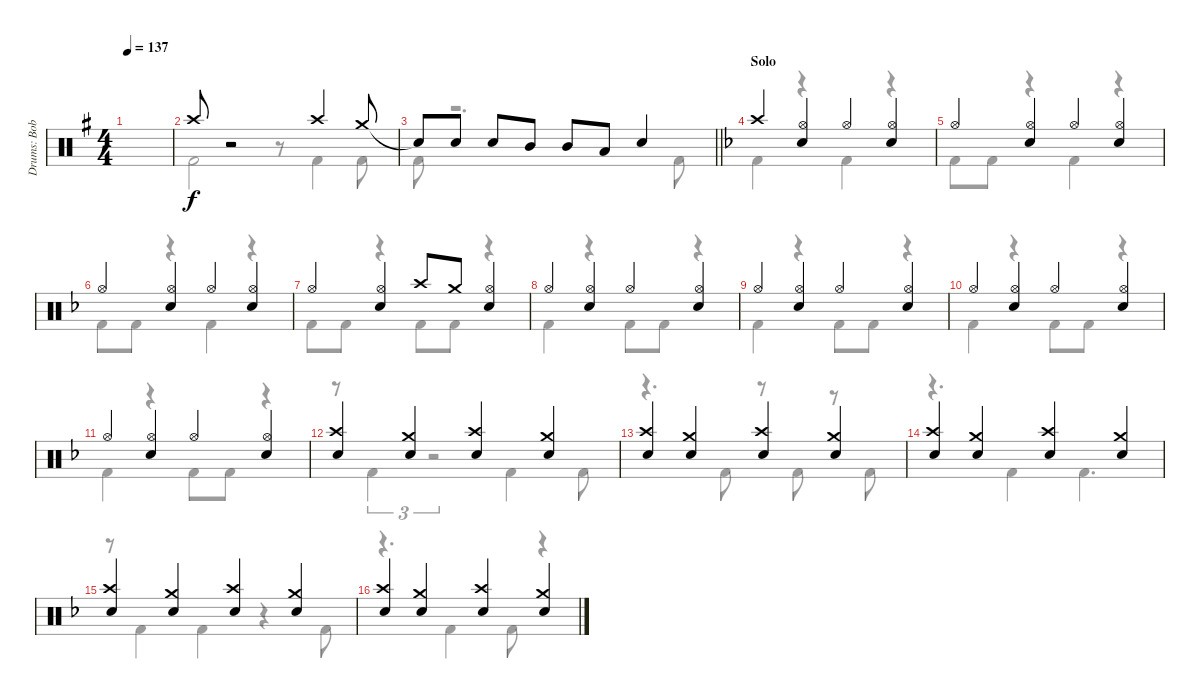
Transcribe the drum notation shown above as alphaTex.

\track ("Drums: Bobby" "Drums: Bob") {instrument percussion}
\staff {score}
\articulation defaults
\voice
\ts (4 4)
\tempo 137
\clef neutral
\ks g
|
"Crash high (hit)".8 r.2 "Crash high (hit)".4 "Crash medium (hit)".8 |
\barLineRight lightlight "Snare (hit)"{t}.8 "Snare (hit) 2".8 "Snare (hit) 2".8 "Mid Tom (hit)".8 "Mid Tom (hit)".8 "Low Tom (hit)".8 "Snare (hit) 2".4
|
\section ("" "Solo")
\ks f "Crash high (hit)".4
("Hi-Hat (open)" "Snare (hit) 2").4 "Hi-Hat (open)".4 ("Hi-Hat (open)" "Snare (hit) 2").4 |
"Hi-Hat (open)".4 ("Hi-Hat (open)" "Snare (hit) 2").4 "Hi-Hat (open)".4 ("Hi-Hat (open)" "Snare (hit) 2").4 |
"Hi-Hat (open)".4 ("Hi-Hat (open)" "Snare (hit) 2").4 "Hi-Hat (open)".4 ("Hi-Hat (open)" "Snare (hit) 2").4 |
"Hi-Hat (open)".4 ("Hi-Hat (open)" "Snare (hit) 2").4 "Crash high (hit)".8 "Crash medium (hit)".8 ("Hi-Hat (open)" "Snare (hit) 2").4 |
"Hi-Hat (open)".4 ("Hi-Hat (open)" "Snare (hit) 2").4 "Hi-Hat (open)".4 ("Hi-Hat (open)" "Snare (hit) 2").4 |
"Hi-Hat (open)".4 ("Hi-Hat (open)" "Snare (hit) 2").4 "Hi-Hat (open)".4 ("Hi-Hat (open)" "Snare (hit) 2").4 |
"Hi-Hat (open)".4 ("Hi-Hat (open)" "Snare (hit) 2").4 "Hi-Hat (open)".4 ("Hi-Hat (open)" "Snare (hit) 2").4 |
"Hi-Hat (open)".4 ("Hi-Hat (open)" "Snare (hit) 2").4 "Hi-Hat (open)".4 ("Hi-Hat (open)" "Snare (hit) 2").4 |
("Crash high (hit)" "Snare (hit) 2").4 ("Crash medium (hit)" "Snare (hit) 2").4 ("Crash high (hit)" "Snare (hit) 2").4 ("Crash medium (hit)" "Snare (hit) 2").4 |
("Crash high (hit)" "Snare (hit) 2").4 ("Crash medium (hit)" "Snare (hit) 2").4 ("Crash high (hit)" "Snare (hit) 2").4 ("Crash medium (hit)" "Snare (hit) 2").4 |
("Crash high (hit)" "Snare (hit) 2").4 ("Crash medium (hit)" "Snare (hit) 2").4 ("Crash high (hit)" "Snare (hit) 2").4 ("Crash medium (hit)" "Snare (hit) 2").4 |
("Crash high (hit)" "Snare (hit) 2").4 ("Crash medium (hit)" "Snare (hit) 2").4 ("Crash high (hit)" "Snare (hit) 2").4 ("Crash medium (hit)" "Snare (hit) 2").4 |
("Crash high (hit)" "Snare (hit) 2").4 ("Crash medium (hit)" "Snare (hit) 2").4 ("Crash high (hit)" "Snare (hit) 2").4 ("Crash medium (hit)" "Snare (hit) 2").4
\voice
\clef neutral
\ottava regular
\simile none
\ks g
|
"Kick (hit) 2".2 r.8 "Kick (hit) 2".4 "Kick (hit) 2".8 |
\barLineRight lightlight "Kick (hit) 2".8
r.2{d} "Kick (hit) 2".8 |
\ks f "Kick (hit) 2".4
r.4 "Kick (hit) 2".4 r.4 |
"Kick (hit) 2".8 "Kick (hit) 2".8 r.4 "Kick (hit) 2".4 r.4 |
"Kick (hit) 2".8 "Kick (hit) 2".8 r.4 "Kick (hit) 2".4 r.4 |
"Kick (hit) 2".8 "Kick (hit) 2".8 r.4 "Kick (hit) 2".8 "Kick (hit) 2".8 r.4 |
"Kick (hit) 2".4 r.4 "Kick (hit) 2".8 "Kick (hit) 2".8 r.4 |
"Kick (hit) 2".4 r.4 "Kick (hit) 2".8 "Kick (hit) 2".8 r.4 |
"Kick (hit) 2".4 r.4 "Kick (hit) 2".8 "Kick (hit) 2".8 r.4 |
"Kick (hit) 2".4 r.4 "Kick (hit) 2".8 "Kick (hit) 2".8 r.4 |
r.8 "Kick (hit) 2".4{tu (3 2)} r.2{tu (3 2)} "Kick (hit) 2".4 "Kick (hit) 2".8 |
r.4{d} "Kick (hit) 2".8 r.8 "Kick (hit) 2".8 r.8 "Kick (hit) 2".8 |
r.4{d} "Kick (hit) 2".4 "Kick (hit) 2".4{d} |
r.8 "Kick (hit) 2".4 "Kick (hit) 2".4 r.4 "Kick (hit) 2".8 |
r.4{d} "Kick (hit) 2".4 "Kick (hit) 2".8 r.4
